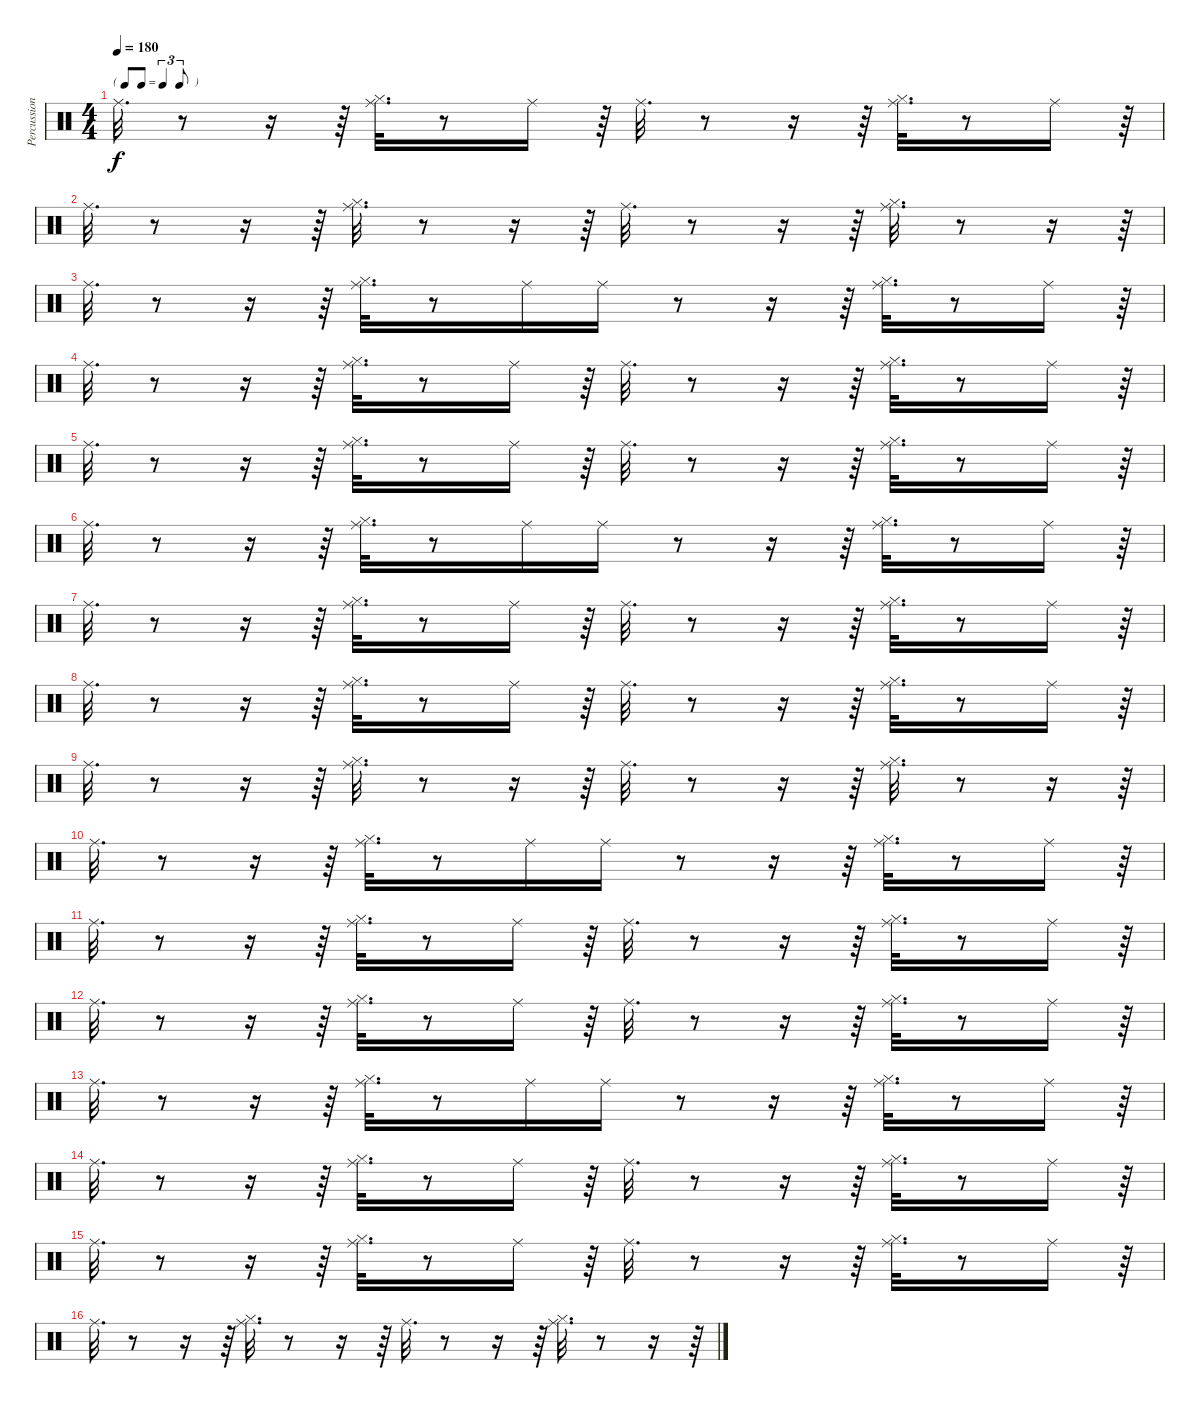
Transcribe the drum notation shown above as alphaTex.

\track ("Percussions" "Percussion") {instrument percussion}
\staff {score}
\articulation defaults
\ts (4 4)
\tf triplet8th
\tempo 180
\clef neutral
\ks c "Ride (middle)".32{d dy f}
r.8 r.16 r.64 ("Hi-Hat (closed)" "Ride (middle)").32{d} r.8 "Ride (middle)".16 r.64 "Ride (middle)".32{d} r.8 r.16 r.64 ("Hi-Hat (closed)" "Ride (middle)").32{d} r.8 "Ride (middle)".16 r.64 |
"Ride (middle)".32{d} r.8 r.16 r.64 ("Hi-Hat (closed)" "Ride (middle)").32{d} r.8 r.16 r.64 "Ride (middle)".32{d} r.8 r.16 r.64 ("Hi-Hat (closed)" "Ride (middle)").32{d} r.8 r.16 r.64 |
"Ride (middle)".32{d} r.8 r.16 r.64 ("Hi-Hat (closed)" "Ride (middle)").32{d} r.8 "Ride (middle)".16 "Ride (middle)".16 r.8 r.16 r.64 ("Hi-Hat (closed)" "Ride (middle)").32{d} r.8 "Ride (middle)".16 r.64 |
"Ride (middle)".32{d} r.8 r.16 r.64 ("Hi-Hat (closed)" "Ride (middle)").32{d} r.8 "Ride (middle)".16 r.64 "Ride (middle)".32{d} r.8 r.16 r.64 ("Hi-Hat (closed)" "Ride (middle)").32{d} r.8 "Ride (middle)".16 r.64 |
"Ride (middle)".32{d} r.8 r.16 r.64 ("Hi-Hat (closed)" "Ride (middle)").32{d} r.8 "Ride (middle)".16 r.64 "Ride (middle)".32{d} r.8 r.16 r.64 ("Hi-Hat (closed)" "Ride (middle)").32{d} r.8 "Ride (middle)".16 r.64 |
"Ride (middle)".32{d} r.8 r.16 r.64 ("Hi-Hat (closed)" "Ride (middle)").32{d} r.8 "Ride (middle)".16 "Ride (middle)".16 r.8 r.16 r.64 ("Hi-Hat (closed)" "Ride (middle)").32{d} r.8 "Ride (middle)".16 r.64 |
"Ride (middle)".32{d} r.8 r.16 r.64 ("Hi-Hat (closed)" "Ride (middle)").32{d} r.8 "Ride (middle)".16 r.64 "Ride (middle)".32{d} r.8 r.16 r.64 ("Hi-Hat (closed)" "Ride (middle)").32{d} r.8 "Ride (middle)".16 r.64 |
"Ride (middle)".32{d} r.8 r.16 r.64 ("Hi-Hat (closed)" "Ride (middle)").32{d} r.8 "Ride (middle)".16 r.64 "Ride (middle)".32{d} r.8 r.16 r.64 ("Hi-Hat (closed)" "Ride (middle)").32{d} r.8 "Ride (middle)".16 r.64 |
"Ride (middle)".32{d} r.8 r.16 r.64 ("Hi-Hat (closed)" "Ride (middle)").32{d} r.8 r.16 r.64 "Ride (middle)".32{d} r.8 r.16 r.64 ("Hi-Hat (closed)" "Ride (middle)").32{d} r.8 r.16 r.64 |
"Ride (middle)".32{d} r.8 r.16 r.64 ("Hi-Hat (closed)" "Ride (middle)").32{d} r.8 "Ride (middle)".16 "Ride (middle)".16 r.8 r.16 r.64 ("Hi-Hat (closed)" "Ride (middle)").32{d} r.8 "Ride (middle)".16 r.64 |
"Ride (middle)".32{d} r.8 r.16 r.64 ("Hi-Hat (closed)" "Ride (middle)").32{d} r.8 "Ride (middle)".16 r.64 "Ride (middle)".32{d} r.8 r.16 r.64 ("Hi-Hat (closed)" "Ride (middle)").32{d} r.8 "Ride (middle)".16 r.64 |
"Ride (middle)".32{d} r.8 r.16 r.64 ("Hi-Hat (closed)" "Ride (middle)").32{d} r.8 "Ride (middle)".16 r.64 "Ride (middle)".32{d} r.8 r.16 r.64 ("Hi-Hat (closed)" "Ride (middle)").32{d} r.8 "Ride (middle)".16 r.64 |
"Ride (middle)".32{d} r.8 r.16 r.64 ("Hi-Hat (closed)" "Ride (middle)").32{d} r.8 "Ride (middle)".16 "Ride (middle)".16 r.8 r.16 r.64 ("Hi-Hat (closed)" "Ride (middle)").32{d} r.8 "Ride (middle)".16 r.64 |
"Ride (middle)".32{d} r.8 r.16 r.64 ("Hi-Hat (closed)" "Ride (middle)").32{d} r.8 "Ride (middle)".16 r.64 "Ride (middle)".32{d} r.8 r.16 r.64 ("Hi-Hat (closed)" "Ride (middle)").32{d} r.8 "Ride (middle)".16 r.64 |
"Ride (middle)".32{d} r.8 r.16 r.64 ("Hi-Hat (closed)" "Ride (middle)").32{d} r.8 "Ride (middle)".16 r.64 "Ride (middle)".32{d} r.8 r.16 r.64 ("Hi-Hat (closed)" "Ride (middle)").32{d} r.8 "Ride (middle)".16 r.64 |
"Ride (middle)".32{d} r.8 r.16 r.64 ("Hi-Hat (closed)" "Ride (middle)").32{d} r.8 r.16 r.64 "Ride (middle)".32{d} r.8 r.16 r.64 ("Hi-Hat (closed)" "Ride (middle)").32{d} r.8 r.16 r.64
